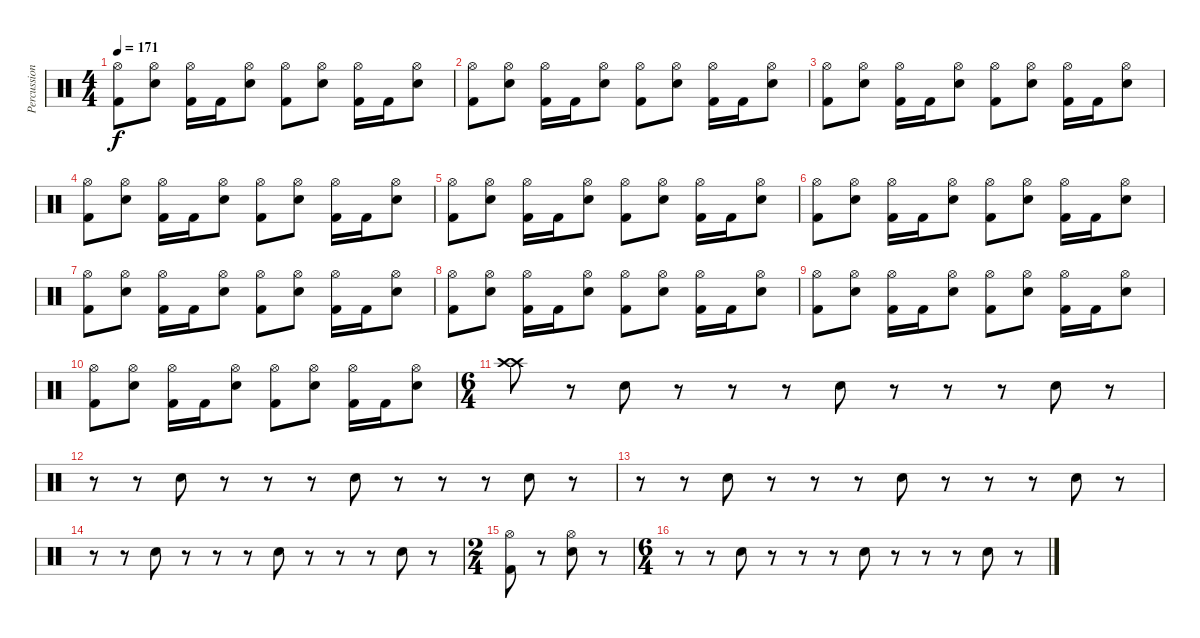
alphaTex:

\track ("Percussions" "Percussion") {instrument percussion}
\staff {score}
\articulation defaults
\ts (4 4)
\tempo 171
\clef neutral
\ks c
("Hi-Hat (open)" "Kick (hit) 2").8{dy f} ("Hi-Hat (open)" "Electric Snare (hit)").8 ("Hi-Hat (open)" "Kick (hit) 2").16 "Kick (hit) 2".16 ("Hi-Hat (open)" "Electric Snare (hit)").8 ("Hi-Hat (open)" "Kick (hit) 2").8 ("Hi-Hat (open)" "Electric Snare (hit)").8 ("Hi-Hat (open)" "Kick (hit) 2").16 "Kick (hit) 2".16 ("Hi-Hat (open)" "Electric Snare (hit)").8 |
("Hi-Hat (open)" "Kick (hit) 2").8 ("Hi-Hat (open)" "Electric Snare (hit)").8 ("Hi-Hat (open)" "Kick (hit) 2").16 "Kick (hit) 2".16 ("Hi-Hat (open)" "Electric Snare (hit)").8 ("Hi-Hat (open)" "Kick (hit) 2").8 ("Hi-Hat (open)" "Electric Snare (hit)").8 ("Hi-Hat (open)" "Kick (hit) 2").16 "Kick (hit) 2".16 ("Hi-Hat (open)" "Electric Snare (hit)").8 |
("Hi-Hat (open)" "Kick (hit) 2").8 ("Hi-Hat (open)" "Electric Snare (hit)").8 ("Hi-Hat (open)" "Kick (hit) 2").16 "Kick (hit) 2".16 ("Hi-Hat (open)" "Electric Snare (hit)").8 ("Hi-Hat (open)" "Kick (hit) 2").8 ("Hi-Hat (open)" "Electric Snare (hit)").8 ("Hi-Hat (open)" "Kick (hit) 2").16 "Kick (hit) 2".16 ("Hi-Hat (open)" "Electric Snare (hit)").8 |
("Hi-Hat (open)" "Kick (hit) 2").8 ("Hi-Hat (open)" "Electric Snare (hit)").8 ("Hi-Hat (open)" "Kick (hit) 2").16 "Kick (hit) 2".16 ("Hi-Hat (open)" "Electric Snare (hit)").8 ("Hi-Hat (open)" "Kick (hit) 2").8 ("Hi-Hat (open)" "Electric Snare (hit)").8 ("Hi-Hat (open)" "Kick (hit) 2").16 "Kick (hit) 2".16 ("Hi-Hat (open)" "Electric Snare (hit)").8 |
("Hi-Hat (open)" "Kick (hit) 2").8 ("Hi-Hat (open)" "Electric Snare (hit)").8 ("Hi-Hat (open)" "Kick (hit) 2").16 "Kick (hit) 2".16 ("Hi-Hat (open)" "Electric Snare (hit)").8 ("Hi-Hat (open)" "Kick (hit) 2").8 ("Hi-Hat (open)" "Electric Snare (hit)").8 ("Hi-Hat (open)" "Kick (hit) 2").16 "Kick (hit) 2".16 ("Hi-Hat (open)" "Electric Snare (hit)").8 |
("Hi-Hat (open)" "Kick (hit) 2").8 ("Hi-Hat (open)" "Electric Snare (hit)").8 ("Hi-Hat (open)" "Kick (hit) 2").16 "Kick (hit) 2".16 ("Hi-Hat (open)" "Electric Snare (hit)").8 ("Hi-Hat (open)" "Kick (hit) 2").8 ("Hi-Hat (open)" "Electric Snare (hit)").8 ("Hi-Hat (open)" "Kick (hit) 2").16 "Kick (hit) 2".16 ("Hi-Hat (open)" "Electric Snare (hit)").8 |
("Hi-Hat (open)" "Kick (hit) 2").8 ("Hi-Hat (open)" "Electric Snare (hit)").8 ("Hi-Hat (open)" "Kick (hit) 2").16 "Kick (hit) 2".16 ("Hi-Hat (open)" "Electric Snare (hit)").8 ("Hi-Hat (open)" "Kick (hit) 2").8 ("Hi-Hat (open)" "Electric Snare (hit)").8 ("Hi-Hat (open)" "Kick (hit) 2").16 "Kick (hit) 2".16 ("Hi-Hat (open)" "Electric Snare (hit)").8 |
("Hi-Hat (open)" "Kick (hit) 2").8 ("Hi-Hat (open)" "Electric Snare (hit)").8 ("Hi-Hat (open)" "Kick (hit) 2").16 "Kick (hit) 2".16 ("Hi-Hat (open)" "Electric Snare (hit)").8 ("Hi-Hat (open)" "Kick (hit) 2").8 ("Hi-Hat (open)" "Electric Snare (hit)").8 ("Hi-Hat (open)" "Kick (hit) 2").16 "Kick (hit) 2".16 ("Hi-Hat (open)" "Electric Snare (hit)").8 |
("Hi-Hat (open)" "Kick (hit) 2").8 ("Hi-Hat (open)" "Electric Snare (hit)").8 ("Hi-Hat (open)" "Kick (hit) 2").16 "Kick (hit) 2".16 ("Hi-Hat (open)" "Electric Snare (hit)").8 ("Hi-Hat (open)" "Kick (hit) 2").8 ("Hi-Hat (open)" "Electric Snare (hit)").8 ("Hi-Hat (open)" "Kick (hit) 2").16 "Kick (hit) 2".16 ("Hi-Hat (open)" "Electric Snare (hit)").8 |
("Hi-Hat (open)" "Kick (hit) 2").8 ("Hi-Hat (open)" "Electric Snare (hit)").8 ("Hi-Hat (open)" "Kick (hit) 2").16 "Kick (hit) 2".16 ("Hi-Hat (open)" "Electric Snare (hit)").8 ("Hi-Hat (open)" "Kick (hit) 2").8 ("Hi-Hat (open)" "Electric Snare (hit)").8 ("Hi-Hat (open)" "Kick (hit) 2").16 "Kick (hit) 2".16 ("Hi-Hat (open)" "Electric Snare (hit)").8 |
\ts (6 4)
("Crash high (hit)" "Crash high (hit)").8 r.8 "Electric Snare (hit)".8 r.8 r.8 r.8 "Electric Snare (hit)".8 r.8 r.8 r.8 "Electric Snare (hit)".8 r.8 |
r.8 r.8 "Electric Snare (hit)".8 r.8 r.8 r.8 "Electric Snare (hit)".8 r.8 r.8 r.8 "Electric Snare (hit)".8 r.8 |
r.8 r.8 "Electric Snare (hit)".8 r.8 r.8 r.8 "Electric Snare (hit)".8 r.8 r.8 r.8 "Electric Snare (hit)".8 r.8 |
r.8 r.8 "Electric Snare (hit)".8 r.8 r.8 r.8 "Electric Snare (hit)".8 r.8 r.8 r.8 "Electric Snare (hit)".8 r.8 |
\ts (2 4)
("Hi-Hat (open)" "Kick (hit) 2").8 r.8 ("Hi-Hat (open)" "Electric Snare (hit)").8 r.8 |
\ts (6 4)
r.8 r.8 "Electric Snare (hit)".8 r.8 r.8 r.8 "Electric Snare (hit)".8 r.8 r.8 r.8 "Electric Snare (hit)".8 r.8
